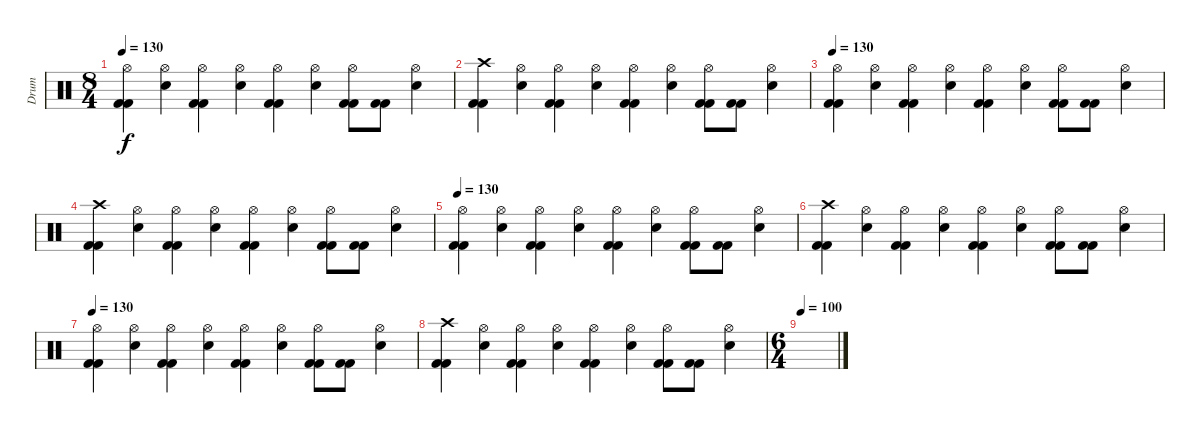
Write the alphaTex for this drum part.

\track ("Drum" "Drum") {instrument percussion}
\staff {score}
\articulation defaults
\ts (8 4)
\tempo 130
\clef neutral
\ks c
("Hi-Hat (open)" "Kick (hit) 2" "Kick (hit) 2").4{dy f} ("Hi-Hat (open)" "Electric Snare (hit)").4 ("Hi-Hat (open)" "Kick (hit) 2" "Kick (hit) 2").4 ("Hi-Hat (open)" "Electric Snare (hit)").4 ("Hi-Hat (open)" "Kick (hit) 2" "Kick (hit) 2").4 ("Hi-Hat (open)" "Electric Snare (hit)").4 ("Hi-Hat (open)" "Kick (hit) 2" "Kick (hit) 2").8 ("Kick (hit) 2" "Kick (hit) 2").8 ("Hi-Hat (open)" "Electric Snare (hit)").4 |
("Crash high (hit)" "Kick (hit) 2" "Kick (hit) 2").4 ("Hi-Hat (open)" "Electric Snare (hit)").4 ("Hi-Hat (open)" "Kick (hit) 2" "Kick (hit) 2").4 ("Hi-Hat (open)" "Electric Snare (hit)").4 ("Hi-Hat (open)" "Kick (hit) 2" "Kick (hit) 2").4 ("Hi-Hat (open)" "Electric Snare (hit)").4 ("Hi-Hat (open)" "Kick (hit) 2" "Kick (hit) 2").8 ("Kick (hit) 2" "Kick (hit) 2").8 ("Hi-Hat (open)" "Electric Snare (hit)").4 |
\tempo 130
("Hi-Hat (open)" "Kick (hit) 2" "Kick (hit) 2").4 ("Hi-Hat (open)" "Electric Snare (hit)").4 ("Hi-Hat (open)" "Kick (hit) 2" "Kick (hit) 2").4 ("Hi-Hat (open)" "Electric Snare (hit)").4 ("Hi-Hat (open)" "Kick (hit) 2" "Kick (hit) 2").4 ("Hi-Hat (open)" "Electric Snare (hit)").4 ("Hi-Hat (open)" "Kick (hit) 2" "Kick (hit) 2").8 ("Kick (hit) 2" "Kick (hit) 2").8 ("Hi-Hat (open)" "Electric Snare (hit)").4 |
("Crash high (hit)" "Kick (hit) 2" "Kick (hit) 2").4 ("Hi-Hat (open)" "Electric Snare (hit)").4 ("Hi-Hat (open)" "Kick (hit) 2" "Kick (hit) 2").4 ("Hi-Hat (open)" "Electric Snare (hit)").4 ("Hi-Hat (open)" "Kick (hit) 2" "Kick (hit) 2").4 ("Hi-Hat (open)" "Electric Snare (hit)").4 ("Hi-Hat (open)" "Kick (hit) 2" "Kick (hit) 2").8 ("Kick (hit) 2" "Kick (hit) 2").8 ("Hi-Hat (open)" "Electric Snare (hit)").4 |
\tempo 130
("Hi-Hat (open)" "Kick (hit) 2" "Kick (hit) 2").4 ("Hi-Hat (open)" "Electric Snare (hit)").4 ("Hi-Hat (open)" "Kick (hit) 2" "Kick (hit) 2").4 ("Hi-Hat (open)" "Electric Snare (hit)").4 ("Hi-Hat (open)" "Kick (hit) 2" "Kick (hit) 2").4 ("Hi-Hat (open)" "Electric Snare (hit)").4 ("Hi-Hat (open)" "Kick (hit) 2" "Kick (hit) 2").8 ("Kick (hit) 2" "Kick (hit) 2").8 ("Hi-Hat (open)" "Electric Snare (hit)").4 |
("Crash high (hit)" "Kick (hit) 2" "Kick (hit) 2").4 ("Hi-Hat (open)" "Electric Snare (hit)").4 ("Hi-Hat (open)" "Kick (hit) 2" "Kick (hit) 2").4 ("Hi-Hat (open)" "Electric Snare (hit)").4 ("Hi-Hat (open)" "Kick (hit) 2" "Kick (hit) 2").4 ("Hi-Hat (open)" "Electric Snare (hit)").4 ("Hi-Hat (open)" "Kick (hit) 2" "Kick (hit) 2").8 ("Kick (hit) 2" "Kick (hit) 2").8 ("Hi-Hat (open)" "Electric Snare (hit)").4 |
\tempo 130
("Hi-Hat (open)" "Kick (hit) 2" "Kick (hit) 2").4 ("Hi-Hat (open)" "Electric Snare (hit)").4 ("Hi-Hat (open)" "Kick (hit) 2" "Kick (hit) 2").4 ("Hi-Hat (open)" "Electric Snare (hit)").4 ("Hi-Hat (open)" "Kick (hit) 2" "Kick (hit) 2").4 ("Hi-Hat (open)" "Electric Snare (hit)").4 ("Hi-Hat (open)" "Kick (hit) 2" "Kick (hit) 2").8 ("Kick (hit) 2" "Kick (hit) 2").8 ("Hi-Hat (open)" "Electric Snare (hit)").4 |
("Crash high (hit)" "Kick (hit) 2" "Kick (hit) 2").4 ("Hi-Hat (open)" "Electric Snare (hit)").4 ("Hi-Hat (open)" "Kick (hit) 2" "Kick (hit) 2").4 ("Hi-Hat (open)" "Electric Snare (hit)").4 ("Hi-Hat (open)" "Kick (hit) 2" "Kick (hit) 2").4 ("Hi-Hat (open)" "Electric Snare (hit)").4 ("Hi-Hat (open)" "Kick (hit) 2" "Kick (hit) 2").8 ("Kick (hit) 2" "Kick (hit) 2").8 ("Hi-Hat (open)" "Electric Snare (hit)").4 |
\ts (6 4)
\tempo 100
